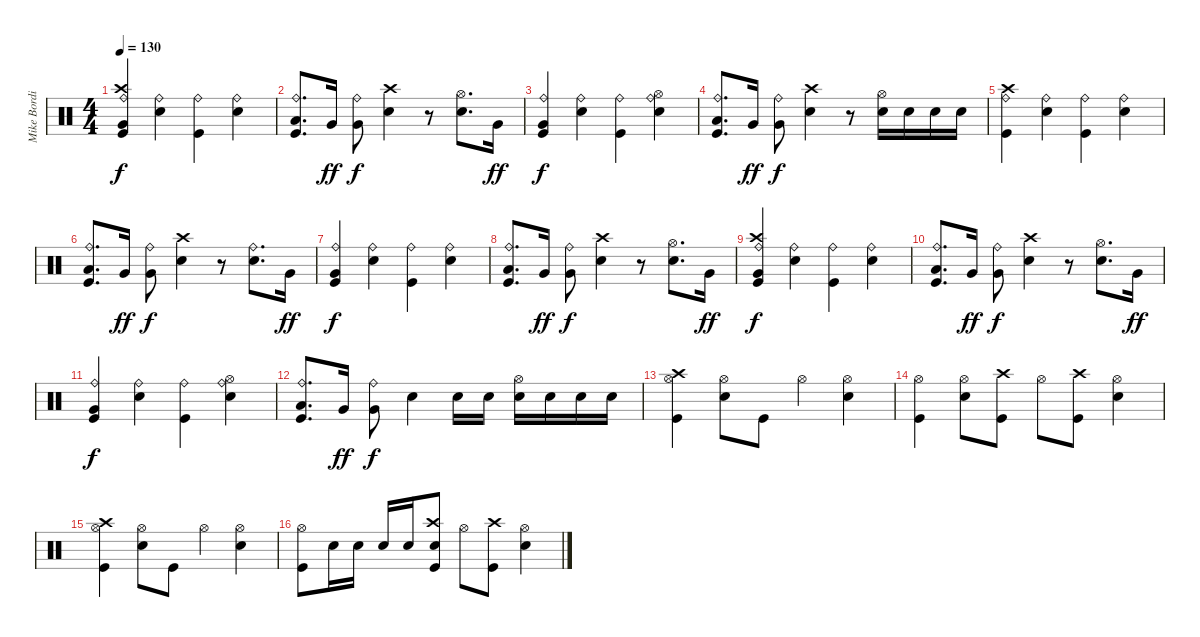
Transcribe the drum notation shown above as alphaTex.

\track ("Mike Bordin" "Mike Bordi") {instrument percussion}
\staff {score}
\articulation defaults
\ts (4 4)
\tempo 130
\clef neutral
\ks c
("Kick (hit)" "Ride (bell)" "Crash high (hit)" "Very Low Tom (hit)").4{dy f} ("Snare (hit) 2" "Ride (bell)").4 ("Kick (hit)" "Ride (bell)").4 ("Snare (hit) 2" "Ride (bell)").4 |
("Kick (hit)" "Ride (bell)" "Low Tom (hit)").8{d} "Very Low Tom (hit)".16{dy ff} ("Ride (bell)" "Very Low Tom (hit)").8{dy f} ("Snare (hit) 2" "Crash high (hit)").4 r.8 ("Snare (hit) 2" "Hi-Hat (open)").8{d} "Very Low Tom (hit)".16{dy ff} |
("Kick (hit)" "Ride (bell)" "Very Low Tom (hit)").4{dy f} ("Snare (hit) 2" "Ride (bell)").4 ("Kick (hit)" "Ride (bell)").4 ("Snare (hit) 2" "Hi-Hat (open)" "Ride (bell)").4 |
("Kick (hit)" "Ride (bell)" "Low Tom (hit)").8{d} "Very Low Tom (hit)".16{dy ff} ("Ride (bell)" "Very Low Tom (hit)").8{dy f} ("Snare (hit) 2" "Crash high (hit)").4 r.8 ("Snare (hit) 2" "Hi-Hat (open)").16 "Snare (hit) 2".16 "Snare (hit) 2".16 "Snare (hit) 2".16 |
("Kick (hit)" "Ride (bell)" "Crash high (hit)").4 ("Snare (hit) 2" "Ride (bell)").4 ("Kick (hit)" "Ride (bell)").4 ("Snare (hit) 2" "Ride (bell)").4 |
("Kick (hit)" "Ride (bell)" "Low Tom (hit)").8{d} "Very Low Tom (hit)".16{dy ff} ("Ride (bell)" "Very Low Tom (hit)").8{dy f} ("Snare (hit) 2" "Crash high (hit)").4 r.8 ("Snare (hit) 2" "Ride (bell)").8{d} "Very Low Tom (hit)".16{dy ff} |
("Kick (hit)" "Ride (bell)" "Very Low Tom (hit)").4{dy f} ("Snare (hit) 2" "Ride (bell)").4 ("Kick (hit)" "Ride (bell)").4 ("Snare (hit) 2" "Ride (bell)").4 |
("Kick (hit)" "Ride (bell)" "Low Tom (hit)").8{d} "Very Low Tom (hit)".16{dy ff} ("Ride (bell)" "Very Low Tom (hit)").8{dy f} ("Snare (hit) 2" "Crash high (hit)").4 r.8 ("Snare (hit) 2" "Hi-Hat (open)").8{d} "Very Low Tom (hit)".16{dy ff} |
("Kick (hit)" "Ride (bell)" "Crash high (hit)" "Very Low Tom (hit)").4{dy f} ("Snare (hit) 2" "Ride (bell)").4 ("Kick (hit)" "Ride (bell)").4 ("Snare (hit) 2" "Ride (bell)").4 |
("Kick (hit)" "Ride (bell)" "Low Tom (hit)").8{d} "Very Low Tom (hit)".16{dy ff} ("Ride (bell)" "Very Low Tom (hit)").8{dy f} ("Snare (hit) 2" "Crash high (hit)").4 r.8 ("Snare (hit) 2" "Hi-Hat (open)").8{d} "Very Low Tom (hit)".16{dy ff} |
("Kick (hit)" "Ride (bell)" "Very Low Tom (hit)").4{dy f} ("Snare (hit) 2" "Ride (bell)").4 ("Kick (hit)" "Ride (bell)").4 ("Snare (hit) 2" "Hi-Hat (open)" "Ride (bell)").4 |
("Kick (hit)" "Ride (bell)" "Low Tom (hit)").8{d} "Very Low Tom (hit)".16{dy ff} ("Ride (bell)" "Very Low Tom (hit)").8{dy f} "Snare (hit) 2".4 "Snare (hit) 2".16 "Snare (hit) 2".16 ("Snare (hit) 2" "Hi-Hat (open)").16 "Snare (hit) 2".16 "Snare (hit) 2".16 "Snare (hit) 2".16 |
("Kick (hit)" "Hi-Hat (open)" "Crash high (hit)").4 ("Snare (hit) 2" "Hi-Hat (open)").8 "Kick (hit)".8 "Hi-Hat (open)".4 ("Snare (hit) 2" "Hi-Hat (open)").4 |
("Kick (hit)" "Hi-Hat (open)").4 ("Snare (hit) 2" "Hi-Hat (open)").8 ("Kick (hit)" "Crash high (hit)").8 "Hi-Hat (open)".8 ("Kick (hit)" "Crash high (hit)").8 ("Snare (hit) 2" "Hi-Hat (open)").4 |
("Kick (hit)" "Hi-Hat (open)" "Crash high (hit)").4 ("Snare (hit) 2" "Hi-Hat (open)").8 "Kick (hit)".8 "Hi-Hat (open)".4 ("Snare (hit) 2" "Hi-Hat (open)").4 |
("Kick (hit)" "Hi-Hat (open)").8 "Snare (hit) 2".16 "Snare (hit) 2".16 "Snare (hit) 2".16 "Snare (hit) 2".16 ("Kick (hit)" "Snare (hit) 2" "Crash high (hit)").8 "Hi-Hat (open)".8 ("Kick (hit)" "Crash high (hit)").8 ("Snare (hit) 2" "Hi-Hat (open)").4
